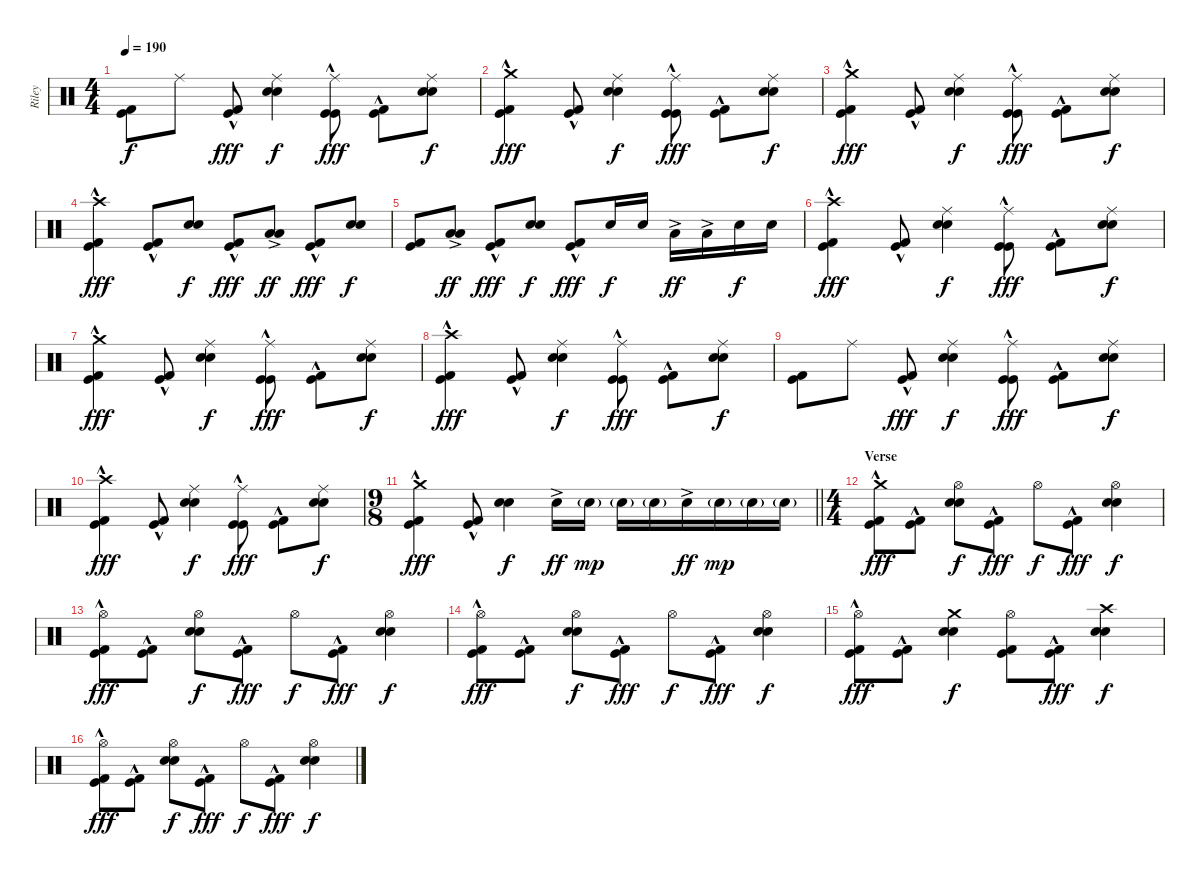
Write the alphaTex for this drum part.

\track ("Riley" "Riley") {instrument percussion}
\staff {score}
\articulation defaults
\ts (4 4)
\tempo 190
\clef neutral
\ks c
("Kick (hit)" "Kick (hit) 2").8{dy f} "Ride (middle)".8 ("Kick (hit)"{hac} "Kick (hit) 2"{hac}).8{dy fff} ("Ride (middle)" "Electric Snare (hit)" "Snare (hit) 2").4{dy f} ("Ride (middle)" "Kick (hit)"{hac} "Kick (hit)"{hac}).8{dy fff} ("Kick (hit)"{hac} "Kick (hit) 2"{hac}).8 ("Ride (middle)" "Electric Snare (hit)" "Snare (hit) 2").8{dy f} |
("Crash medium (hit)" "Kick (hit)"{hac} "Kick (hit) 2"{hac}).4{dy fff} ("Kick (hit)"{hac} "Kick (hit) 2"{hac}).8 ("Ride (middle)" "Electric Snare (hit)" "Snare (hit) 2").4{dy f} ("Ride (middle)" "Kick (hit)"{hac} "Kick (hit)"{hac}).8{dy fff} ("Kick (hit)"{hac} "Kick (hit) 2"{hac}).8 ("Ride (middle)" "Electric Snare (hit)" "Snare (hit) 2").8{dy f} |
("Crash medium (hit)" "Kick (hit)"{hac} "Kick (hit) 2"{hac}).4{dy fff} ("Kick (hit)"{hac} "Kick (hit) 2"{hac}).8 ("Ride (middle)" "Electric Snare (hit)" "Snare (hit) 2").4{dy f} ("Ride (middle)" "Kick (hit)"{hac} "Kick (hit)"{hac}).8{dy fff} ("Kick (hit)"{hac} "Kick (hit) 2"{hac}).8 ("Ride (middle)" "Electric Snare (hit)" "Snare (hit) 2").8{dy f} |
("Crash high (hit)" "Kick (hit)"{hac} "Kick (hit) 2"{hac}).4{dy fff} ("Kick (hit)"{hac} "Kick (hit) 2"{hac}).8 ("Electric Snare (hit)" "Snare (hit) 2").8{dy f} ("Kick (hit)"{hac} "Kick (hit) 2"{hac}).8{dy fff} ("Low Tom (hit)"{ac} "Low Floor Tom (hit)"{ac}).8{dy ff} ("Kick (hit)"{hac} "Kick (hit) 2"{hac}).8{dy fff} ("Electric Snare (hit)" "Snare (hit) 2").8{dy f} |
("Kick (hit)" "Kick (hit) 2").8 ("Low Tom (hit)"{ac} "Low Floor Tom (hit)"{ac}).8{dy ff} ("Kick (hit)"{hac} "Kick (hit) 2"{hac}).8{dy fff} ("Electric Snare (hit)" "Snare (hit) 2").8{dy f} ("Kick (hit)"{hac} "Kick (hit) 2"{hac}).8{dy fff} "Electric Snare (hit)".16{dy f} "Electric Snare (hit)".16 "Low Tom (hit)"{ac}.16{dy ff} "Low Tom (hit)"{ac}.16 "Electric Snare (hit)".16{dy f} "Electric Snare (hit)".16 |
("Crash high (hit)" "Kick (hit)"{hac} "Kick (hit) 2"{hac}).4{dy fff} ("Kick (hit)"{hac} "Kick (hit) 2"{hac}).8 ("Ride (middle)" "Electric Snare (hit)" "Snare (hit) 2").4{dy f} ("Ride (middle)" "Kick (hit)"{hac} "Kick (hit)"{hac}).8{dy fff} ("Kick (hit)"{hac} "Kick (hit) 2"{hac}).8 ("Ride (middle)" "Electric Snare (hit)" "Snare (hit) 2").8{dy f} |
("Crash medium (hit)" "Kick (hit)"{hac} "Kick (hit) 2"{hac}).4{dy fff} ("Kick (hit)"{hac} "Kick (hit) 2"{hac}).8 ("Ride (middle)" "Electric Snare (hit)" "Snare (hit) 2").4{dy f} ("Ride (middle)" "Kick (hit)"{hac} "Kick (hit)"{hac}).8{dy fff} ("Kick (hit)"{hac} "Kick (hit) 2"{hac}).8 ("Ride (middle)" "Electric Snare (hit)" "Snare (hit) 2").8{dy f} |
("Crash high (hit)" "Kick (hit)"{hac} "Kick (hit) 2"{hac}).4{dy fff} ("Kick (hit)"{hac} "Kick (hit) 2"{hac}).8 ("Ride (middle)" "Electric Snare (hit)" "Snare (hit) 2").4{dy f} ("Ride (middle)" "Kick (hit)"{hac} "Kick (hit)"{hac}).8{dy fff} ("Kick (hit)"{hac} "Kick (hit) 2"{hac}).8 ("Ride (middle)" "Electric Snare (hit)" "Snare (hit) 2").8{dy f} |
("Kick (hit)" "Kick (hit) 2").8 "Ride (middle)".8 ("Kick (hit)"{hac} "Kick (hit) 2"{hac}).8{dy fff} ("Ride (middle)" "Electric Snare (hit)" "Snare (hit) 2").4{dy f} ("Ride (middle)" "Kick (hit)"{hac} "Kick (hit)"{hac}).8{dy fff} ("Kick (hit)"{hac} "Kick (hit) 2"{hac}).8 ("Ride (middle)" "Electric Snare (hit)" "Snare (hit) 2").8{dy f} |
("Crash high (hit)" "Kick (hit)"{hac} "Kick (hit) 2"{hac}).4{dy fff} ("Kick (hit)"{hac} "Kick (hit) 2"{hac}).8 ("Ride (middle)" "Electric Snare (hit)" "Snare (hit) 2").4{dy f} ("Ride (middle)" "Kick (hit)"{hac} "Kick (hit)"{hac}).8{dy fff} ("Kick (hit)"{hac} "Kick (hit) 2"{hac}).8 ("Ride (middle)" "Electric Snare (hit)" "Snare (hit) 2").8{dy f} |
\ts (9 8)
\barLineRight lightlight
("Crash medium (hit)" "Kick (hit)"{hac} "Kick (hit) 2"{hac}).4{dy fff} ("Kick (hit)"{hac} "Kick (hit) 2"{hac}).8 ("Electric Snare (hit)" "Snare (hit) 2").4{dy f} "Electric Snare (hit)"{ac}.16{dy ff} "Electric Snare (hit)"{g}.16{dy mp} "Electric Snare (hit)"{g}.16 "Electric Snare (hit)"{g}.16 "Electric Snare (hit)"{ac}.16{dy ff} "Electric Snare (hit)"{g}.16{dy mp} "Electric Snare (hit)"{g}.16 "Electric Snare (hit)"{g}.16 |
\ts (4 4)
\section ("" "Verse")
("Crash medium (hit)" "Kick (hit)"{hac} "Kick (hit) 2"{hac}).8{dy fff} ("Kick (hit)"{hac} "Kick (hit) 2"{hac}).8 ("Hi-Hat (open)" "Electric Snare (hit)" "Snare (hit) 2").8{dy f} ("Kick (hit)"{hac} "Kick (hit) 2"{hac}).8{dy fff} "Hi-Hat (open)".8{dy f} ("Kick (hit)"{hac} "Kick (hit) 2"{hac}).8{dy fff} ("Hi-Hat (open)" "Electric Snare (hit)" "Snare (hit) 2").4{dy f} |
("Hi-Hat (open)" "Kick (hit)"{hac} "Kick (hit) 2"{hac}).8{dy fff} ("Kick (hit)"{hac} "Kick (hit) 2"{hac}).8 ("Hi-Hat (open)" "Electric Snare (hit)" "Snare (hit) 2").8{dy f} ("Kick (hit)"{hac} "Kick (hit) 2"{hac}).8{dy fff} "Hi-Hat (open)".8{dy f} ("Kick (hit)"{hac} "Kick (hit) 2"{hac}).8{dy fff} ("Hi-Hat (open)" "Electric Snare (hit)" "Snare (hit) 2").4{dy f} |
("Hi-Hat (open)" "Kick (hit)"{hac} "Kick (hit) 2"{hac}).8{dy fff} ("Kick (hit)"{hac} "Kick (hit) 2"{hac}).8 ("Hi-Hat (open)" "Electric Snare (hit)" "Snare (hit) 2").8{dy f} ("Kick (hit)"{hac} "Kick (hit) 2"{hac}).8{dy fff} "Hi-Hat (open)".8{dy f} ("Kick (hit)"{hac} "Kick (hit) 2"{hac}).8{dy fff} ("Hi-Hat (open)" "Electric Snare (hit)" "Snare (hit) 2").4{dy f} |
("Hi-Hat (open)" "Kick (hit)"{hac} "Kick (hit) 2"{hac}).8{dy fff} ("Kick (hit)"{hac} "Kick (hit) 2"{hac}).8 ("Crash medium (hit)" "Electric Snare (hit)" "Snare (hit) 2").4{dy f} ("Hi-Hat (open)" "Kick (hit)" "Kick (hit) 2").8 ("Kick (hit)"{hac} "Kick (hit) 2"{hac}).8{dy fff} ("Crash high (hit)" "Electric Snare (hit)" "Snare (hit) 2").4{dy f} |
("Hi-Hat (open)" "Kick (hit)"{hac} "Kick (hit) 2"{hac}).8{dy fff} ("Kick (hit)"{hac} "Kick (hit) 2"{hac}).8 ("Hi-Hat (open)" "Electric Snare (hit)" "Snare (hit) 2").8{dy f} ("Kick (hit)"{hac} "Kick (hit) 2"{hac}).8{dy fff} "Hi-Hat (open)".8{dy f} ("Kick (hit)"{hac} "Kick (hit) 2"{hac}).8{dy fff} ("Hi-Hat (open)" "Electric Snare (hit)" "Snare (hit) 2").4{dy f}
